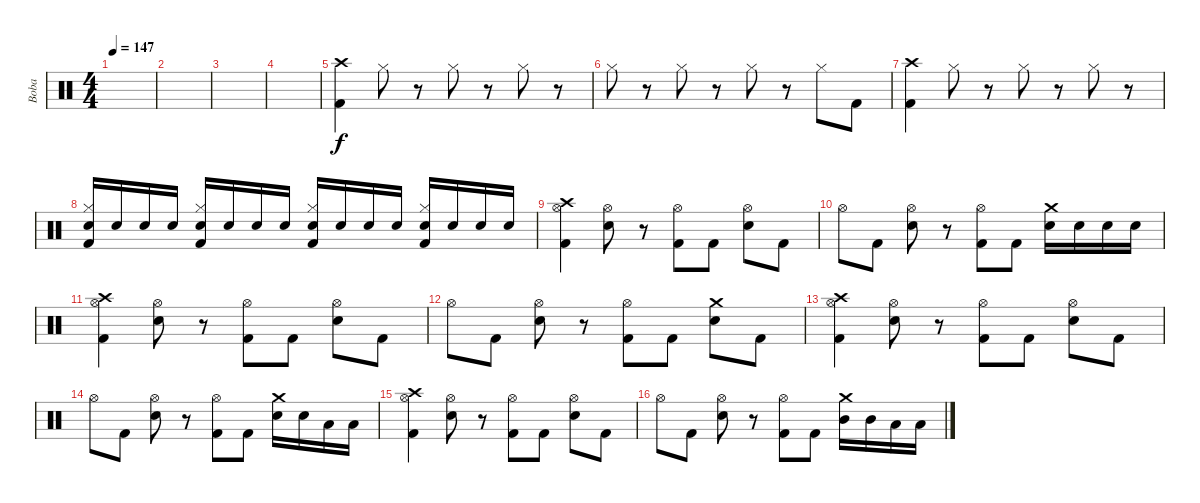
\track ("Boba" "Boba") {instrument percussion}
\staff {score}
\articulation defaults
\ts (4 4)
\tempo 147
\clef neutral
\ks c
|
|
|
|
("Crash high (hit)" "Kick (hit) 2").4 "Hi-Hat (closed)".8 r.8 "Hi-Hat (closed)".8 r.8 "Hi-Hat (closed)".8 r.8 |
"Hi-Hat (closed)".8 r.8 "Hi-Hat (closed)".8 r.8 "Hi-Hat (closed)".8 r.8 "Hi-Hat (closed)".8 "Kick (hit) 2".8 |
("Crash high (hit)" "Kick (hit) 2").4 "Hi-Hat (closed)".8 r.8 "Hi-Hat (closed)".8 r.8 "Hi-Hat (closed)".8 r.8 |
("Hi-Hat (closed)" "Electric Snare (hit)" "Kick (hit) 2").16 "Electric Snare (hit)".16 "Electric Snare (hit)".16 "Electric Snare (hit)".16 ("Hi-Hat (closed)" "Electric Snare (hit)" "Kick (hit) 2").16 "Electric Snare (hit)".16 "Electric Snare (hit)".16 "Electric Snare (hit)".16 ("Hi-Hat (closed)" "Electric Snare (hit)" "Kick (hit) 2").16 "Electric Snare (hit)".16 "Electric Snare (hit)".16 "Electric Snare (hit)".16 ("Hi-Hat (closed)" "Electric Snare (hit)" "Kick (hit) 2").16 "Electric Snare (hit)".16 "Electric Snare (hit)".16 "Electric Snare (hit)".16 |
("Crash high (hit)" "Hi-Hat (open)" "Kick (hit) 2").4 ("Hi-Hat (open)" "Electric Snare (hit)").8 r.8 ("Hi-Hat (open)" "Kick (hit) 2").8 "Kick (hit) 2".8 ("Hi-Hat (open)" "Electric Snare (hit)").8 "Kick (hit) 2".8 |
"Hi-Hat (open)".8 "Kick (hit) 2".8 ("Hi-Hat (open)" "Electric Snare (hit)").8 r.8 ("Hi-Hat (open)" "Kick (hit) 2").8 "Kick (hit) 2".8 ("Crash medium (hit)" "Electric Snare (hit)").16 "Electric Snare (hit)".16 "Electric Snare (hit)".16 "Electric Snare (hit)".16 |
("Crash high (hit)" "Hi-Hat (open)" "Kick (hit) 2").4 ("Hi-Hat (open)" "Electric Snare (hit)").8 r.8 ("Hi-Hat (open)" "Kick (hit) 2").8 "Kick (hit) 2".8 ("Hi-Hat (open)" "Electric Snare (hit)").8 "Kick (hit) 2".8 |
"Hi-Hat (open)".8 "Kick (hit) 2".8 ("Hi-Hat (open)" "Electric Snare (hit)").8 r.8 ("Hi-Hat (open)" "Kick (hit) 2").8 "Kick (hit) 2".8 ("Crash medium (hit)" "Electric Snare (hit)").8 "Kick (hit) 2".8 |
("Crash high (hit)" "Hi-Hat (open)" "Kick (hit) 2").4 ("Hi-Hat (open)" "Electric Snare (hit)").8 r.8 ("Hi-Hat (open)" "Kick (hit) 2").8 "Kick (hit) 2".8 ("Hi-Hat (open)" "Electric Snare (hit)").8 "Kick (hit) 2".8 |
"Hi-Hat (open)".8 "Kick (hit) 2".8 ("Hi-Hat (open)" "Electric Snare (hit)").8 r.8 ("Hi-Hat (open)" "Kick (hit) 2").8 "Kick (hit) 2".8 ("Crash medium (hit)" "Electric Snare (hit)").16 "Electric Snare (hit)".16 "Low Tom (hit)".16 "Low Tom (hit)".16 |
("Crash high (hit)" "Hi-Hat (open)" "Kick (hit) 2").4 ("Hi-Hat (open)" "Electric Snare (hit)").8 r.8 ("Hi-Hat (open)" "Kick (hit) 2").8 "Kick (hit) 2".8 ("Hi-Hat (open)" "Electric Snare (hit)").8 "Kick (hit) 2".8 |
"Hi-Hat (open)".8 "Kick (hit) 2".8 ("Hi-Hat (open)" "Electric Snare (hit)").8 r.8 ("Hi-Hat (open)" "Kick (hit) 2").8 "Kick (hit) 2".8 ("Crash medium (hit)" "Mid Tom (hit)").16 "Mid Tom (hit)".16 "Low Tom (hit)".16 "Low Tom (hit)".16
